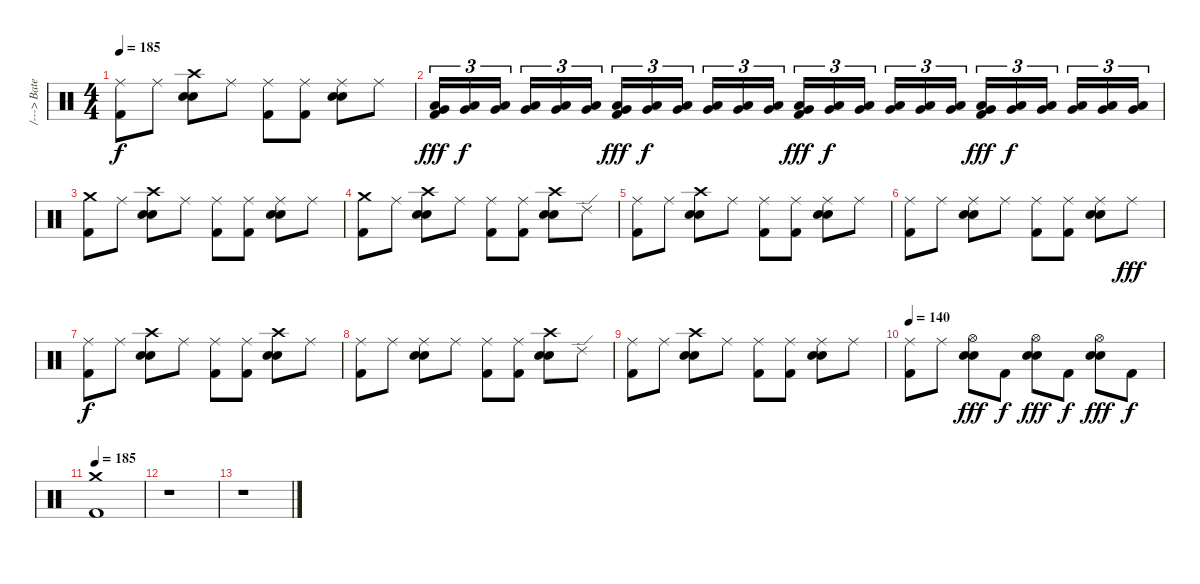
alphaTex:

\track ("/---> Bateria <----/" "/---> Bate") {instrument percussion}
\staff {score}
\articulation defaults
\ts (4 4)
\tempo 185
\clef neutral
\ks c
("Ride (middle)" "Kick (hit) 2").8{dy f} "Ride (middle)".8 ("Crash high (hit)" "Snare (hit) 2" "Electric Snare (hit)").8 "Ride (middle)".8 ("Ride (middle)" "Kick (hit) 2").8 ("Ride (middle)" "Kick (hit) 2").8 ("Ride (middle)" "Snare (hit) 2" "Electric Snare (hit)").8 "Ride (middle)".8 |
("Low Floor Tom (hit)" "Very Low Tom (hit)" "Kick (hit) 2").16{tu (3 2) dy fff} ("Low Floor Tom (hit)" "Very Low Tom (hit)").16{tu (3 2) dy f} ("Low Floor Tom (hit)" "Very Low Tom (hit)").16{tu (3 2)} ("Low Floor Tom (hit)" "Very Low Tom (hit)").16{tu (3 2)} ("Low Floor Tom (hit)" "Very Low Tom (hit)").16{tu (3 2)} ("Low Floor Tom (hit)" "Very Low Tom (hit)").16{tu (3 2)} ("Low Floor Tom (hit)" "Very Low Tom (hit)" "Kick (hit) 2").16{tu (3 2) dy fff} ("Low Floor Tom (hit)" "Very Low Tom (hit)").16{tu (3 2) dy f} ("Low Floor Tom (hit)" "Very Low Tom (hit)").16{tu (3 2)} ("Low Floor Tom (hit)" "Very Low Tom (hit)").16{tu (3 2)} ("Low Floor Tom (hit)" "Very Low Tom (hit)").16{tu (3 2)} ("Low Floor Tom (hit)" "Very Low Tom (hit)").16{tu (3 2)} ("Low Floor Tom (hit)" "Very Low Tom (hit)" "Kick (hit) 2").16{tu (3 2) dy fff} ("Low Floor Tom (hit)" "Very Low Tom (hit)").16{tu (3 2) dy f} ("Low Floor Tom (hit)" "Very Low Tom (hit)").16{tu (3 2)} ("Low Floor Tom (hit)" "Very Low Tom (hit)").16{tu (3 2)} ("Low Floor Tom (hit)" "Very Low Tom (hit)").16{tu (3 2)} ("Low Floor Tom (hit)" "Very Low Tom (hit)").16{tu (3 2)} ("Low Floor Tom (hit)" "Very Low Tom (hit)" "Kick (hit) 2").16{tu (3 2) dy fff} ("Low Floor Tom (hit)" "Very Low Tom (hit)").16{tu (3 2) dy f} ("Low Floor Tom (hit)" "Very Low Tom (hit)").16{tu (3 2)} ("Low Floor Tom (hit)" "Very Low Tom (hit)").16{tu (3 2)} ("Low Floor Tom (hit)" "Very Low Tom (hit)").16{tu (3 2)} ("Low Floor Tom (hit)" "Very Low Tom (hit)").16{tu (3 2)} |
("Crash medium (hit)" "Kick (hit) 2").8 "Ride (middle)".8 ("Crash high (hit)" "Snare (hit) 2" "Electric Snare (hit)").8 "Ride (middle)".8 ("Ride (middle)" "Kick (hit) 2").8 ("Ride (middle)" "Kick (hit) 2").8 ("Ride (middle)" "Snare (hit) 2" "Electric Snare (hit)").8 "Ride (middle)".8 |
("Crash medium (hit)" "Kick (hit) 2").8 "Ride (middle)".8 ("Crash high (hit)" "Snare (hit) 2" "Electric Snare (hit)").8 "Ride (middle)".8 ("Ride (middle)" "Kick (hit) 2").8 ("Ride (middle)" "Kick (hit) 2").8 ("Crash high (hit)" "Snare (hit) 2" "Electric Snare (hit)").8 "Ride (edge) 2".8 |
("Ride (middle)" "Kick (hit) 2").8 "Ride (middle)".8 ("Crash high (hit)" "Snare (hit) 2" "Electric Snare (hit)").8 "Ride (middle)".8 ("Ride (middle)" "Kick (hit) 2").8 ("Ride (middle)" "Kick (hit) 2").8 ("Ride (middle)" "Snare (hit) 2" "Electric Snare (hit)").8 "Ride (middle)".8 |
("Ride (middle)" "Kick (hit) 2").8 "Ride (middle)".8 ("Ride (middle)" "Snare (hit) 2" "Electric Snare (hit)").8 "Ride (middle)".8 ("Ride (middle)" "Kick (hit) 2").8 ("Ride (middle)" "Kick (hit) 2").8 ("Ride (middle)" "Snare (hit) 2" "Electric Snare (hit)").8 "Ride (middle)".8{dy fff} |
("Ride (middle)" "Kick (hit) 2").8{dy f} "Ride (middle)".8 ("Crash high (hit)" "Snare (hit) 2" "Electric Snare (hit)").8 "Ride (middle)".8 ("Ride (middle)" "Kick (hit) 2").8 ("Ride (middle)" "Kick (hit) 2").8 ("Crash high (hit)" "Snare (hit) 2" "Electric Snare (hit)").8 "Ride (middle)".8 |
("Ride (middle)" "Kick (hit) 2").8 "Ride (middle)".8 ("Ride (middle)" "Snare (hit) 2" "Electric Snare (hit)").8 "Ride (middle)".8 ("Ride (middle)" "Kick (hit) 2").8 ("Ride (middle)" "Kick (hit) 2").8 ("Crash high (hit)" "Snare (hit) 2" "Electric Snare (hit)").8 "Ride (edge) 2".8 |
("Ride (middle)" "Kick (hit) 2").8 "Ride (middle)".8 ("Crash high (hit)" "Snare (hit) 2" "Electric Snare (hit)").8 "Ride (middle)".8 ("Ride (middle)" "Kick (hit) 2").8 ("Ride (middle)" "Kick (hit) 2").8 ("Ride (middle)" "Snare (hit) 2" "Electric Snare (hit)").8 "Ride (middle)".8 |
\tempo 140
("Ride (middle)" "Kick (hit) 2").8 "Ride (middle)".8 ("Hi-Hat (open)" "Snare (hit) 2" "Electric Snare (hit)").8{dy fff} "Kick (hit) 2".8{dy f} ("Hi-Hat (open)" "Snare (hit) 2" "Electric Snare (hit)").8{dy fff} "Kick (hit) 2".8{dy f} ("Hi-Hat (open)" "Snare (hit) 2" "Electric Snare (hit)").8{dy fff} "Kick (hit) 2".8{dy f} |
\tempo 185
("Crash medium (hit)" "Kick (hit) 2").1 |
r.1 |
r.1
